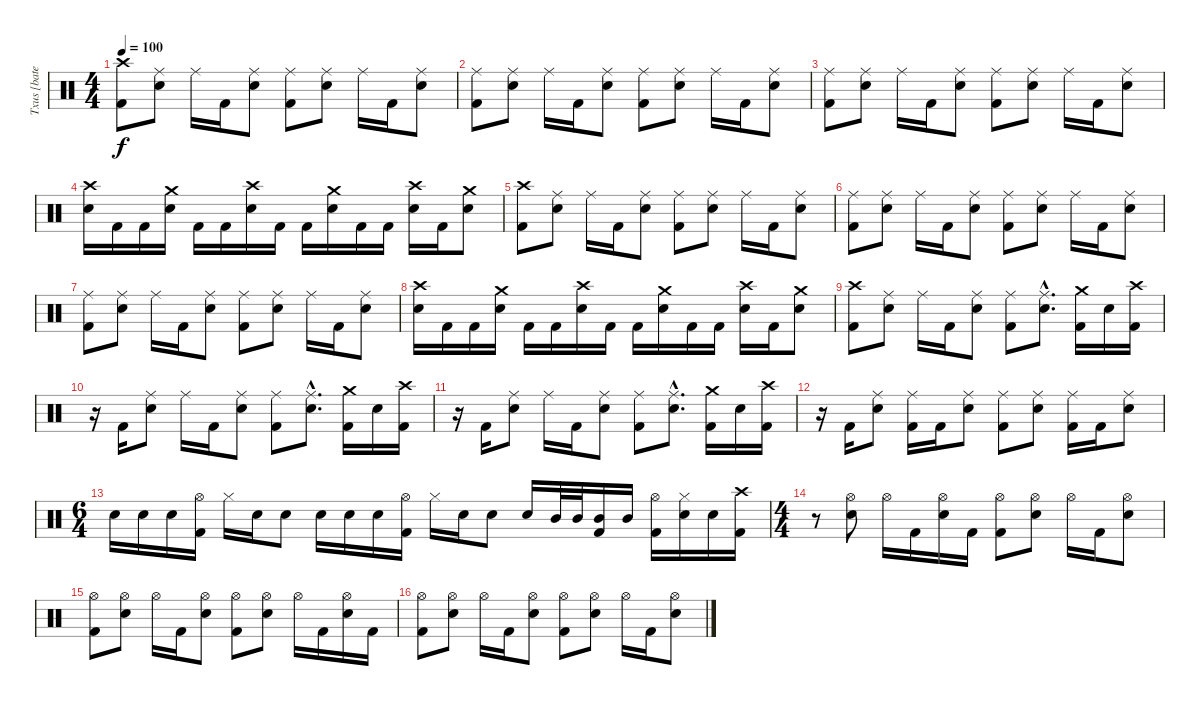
\track ("Txus [bateria]" "Txus [bate") {instrument percussion}
\staff {score}
\articulation defaults
\ts (4 4)
\tempo 100
\clef neutral
\ks c
("Crash high (hit)" "Kick (hit) 2").8{dy f} ("Ride (middle)" "Snare (hit) 2").8 "Ride (middle)".16 "Kick (hit) 2".16 ("Ride (middle)" "Snare (hit) 2").8 ("Ride (middle)" "Kick (hit) 2").8 ("Ride (middle)" "Snare (hit) 2").8 "Ride (middle)".16 "Kick (hit) 2".16 ("Ride (middle)" "Snare (hit) 2").8 |
("Ride (middle)" "Kick (hit) 2").8 ("Ride (middle)" "Snare (hit) 2").8 "Ride (middle)".16 "Kick (hit) 2".16 ("Ride (middle)" "Snare (hit) 2").8 ("Ride (middle)" "Kick (hit) 2").8 ("Ride (middle)" "Snare (hit) 2").8 "Ride (middle)".16 "Kick (hit) 2".16 ("Ride (middle)" "Snare (hit) 2").8 |
("Ride (middle)" "Kick (hit) 2").8 ("Ride (middle)" "Snare (hit) 2").8 "Ride (middle)".16 "Kick (hit) 2".16 ("Ride (middle)" "Snare (hit) 2").8 ("Ride (middle)" "Kick (hit) 2").8 ("Ride (middle)" "Snare (hit) 2").8 "Ride (middle)".16 "Kick (hit) 2".16 ("Ride (middle)" "Snare (hit) 2").8 |
("Crash high (hit)" "Snare (hit) 2").16 "Kick (hit) 2".16 "Kick (hit) 2".16 ("Crash medium (hit)" "Snare (hit) 2").16 "Kick (hit) 2".16 "Kick (hit) 2".16 ("Crash high (hit)" "Snare (hit) 2").16 "Kick (hit) 2".16 "Kick (hit) 2".16 ("Crash medium (hit)" "Snare (hit) 2").16 "Kick (hit) 2".16 "Kick (hit) 2".16 ("Crash high (hit)" "Snare (hit) 2").16 "Kick (hit) 2".16 ("Crash medium (hit)" "Snare (hit) 2").8 |
("Crash high (hit)" "Kick (hit) 2").8 ("Ride (middle)" "Snare (hit) 2").8 "Ride (middle)".16 "Kick (hit) 2".16 ("Ride (middle)" "Snare (hit) 2").8 ("Ride (middle)" "Kick (hit) 2").8 ("Ride (middle)" "Snare (hit) 2").8 "Ride (middle)".16 "Kick (hit) 2".16 ("Ride (middle)" "Snare (hit) 2").8 |
("Ride (middle)" "Kick (hit) 2").8 ("Ride (middle)" "Snare (hit) 2").8 "Ride (middle)".16 "Kick (hit) 2".16 ("Ride (middle)" "Snare (hit) 2").8 ("Ride (middle)" "Kick (hit) 2").8 ("Ride (middle)" "Snare (hit) 2").8 "Ride (middle)".16 "Kick (hit) 2".16 ("Ride (middle)" "Snare (hit) 2").8 |
("Ride (middle)" "Kick (hit) 2").8 ("Ride (middle)" "Snare (hit) 2").8 "Ride (middle)".16 "Kick (hit) 2".16 ("Ride (middle)" "Snare (hit) 2").8 ("Ride (middle)" "Kick (hit) 2").8 ("Ride (middle)" "Snare (hit) 2").8 "Ride (middle)".16 "Kick (hit) 2".16 ("Ride (middle)" "Snare (hit) 2").8 |
("Crash high (hit)" "Snare (hit) 2").16 "Kick (hit) 2".16 "Kick (hit) 2".16 ("Crash medium (hit)" "Snare (hit) 2").16 "Kick (hit) 2".16 "Kick (hit) 2".16 ("Crash high (hit)" "Snare (hit) 2").16 "Kick (hit) 2".16 "Kick (hit) 2".16 ("Crash medium (hit)" "Snare (hit) 2").16 "Kick (hit) 2".16 "Kick (hit) 2".16 ("Crash high (hit)" "Snare (hit) 2").16 "Kick (hit) 2".16 ("Crash medium (hit)" "Snare (hit) 2").8 |
("Crash high (hit)" "Kick (hit) 2").8 ("Ride (middle)" "Snare (hit) 2").8 "Ride (middle)".16 "Kick (hit) 2".16 ("Ride (middle)" "Snare (hit) 2").8 ("Ride (middle)" "Kick (hit) 2").8 ("Ride (middle)"{hac} "Snare (hit) 2"{hac}).8{d} ("Crash medium (hit)" "Kick (hit) 2").16 "Snare (hit) 2".16 ("Crash high (hit)" "Kick (hit) 2").16 |
r.16 "Kick (hit) 2".16 ("Ride (middle)" "Snare (hit) 2").8 "Ride (middle)".16 "Kick (hit) 2".16 ("Ride (middle)" "Snare (hit) 2").8 ("Ride (middle)" "Kick (hit) 2").8 ("Ride (middle)"{hac} "Snare (hit) 2"{hac}).8{d} ("Crash medium (hit)" "Kick (hit) 2").16 "Snare (hit) 2".16 ("Crash high (hit)" "Kick (hit) 2").16 |
r.16 "Kick (hit) 2".16 ("Ride (middle)" "Snare (hit) 2").8 "Ride (middle)".16 "Kick (hit) 2".16 ("Ride (middle)" "Snare (hit) 2").8 ("Ride (middle)" "Kick (hit) 2").8 ("Ride (middle)"{hac} "Snare (hit) 2"{hac}).8{d} ("Crash medium (hit)" "Kick (hit) 2").16 "Snare (hit) 2".16 ("Crash high (hit)" "Kick (hit) 2").16 |
r.16 "Kick (hit) 2".16 ("Ride (middle)" "Snare (hit) 2").8 ("Ride (middle)" "Kick (hit) 2").16 "Kick (hit) 2".16 ("Ride (middle)" "Snare (hit) 2").8 ("Ride (middle)" "Kick (hit) 2").8 ("Ride (middle)" "Snare (hit) 2").8 ("Ride (middle)" "Kick (hit) 2").16 "Kick (hit) 2".16 ("Ride (middle)" "Snare (hit) 2").8 |
\ts (6 4)
"Snare (hit) 2".16 "Snare (hit) 2".16 "Snare (hit) 2".16 ("Hi-Hat (open)" "Kick (hit) 2").16 "Hi-Hat (closed)".16 "Snare (hit) 2".16 "Snare (hit) 2".8 "Snare (hit) 2".16 "Snare (hit) 2".16 "Snare (hit) 2".16 ("Hi-Hat (open)" "Kick (hit) 2").16 "Hi-Hat (closed)".16 "Snare (hit) 2".16 "Snare (hit) 2".8 "Snare (hit) 2".16 "Mid Tom (hit)".32 "Mid Tom (hit)".32 ("Mid Tom (hit)" "Kick (hit) 2").16 "Mid Tom (hit)".16 ("Hi-Hat (open)" "Kick (hit) 2").16 ("Hi-Hat (closed)" "Snare (hit) 2").16 "Snare (hit) 2".16 ("Crash high (hit)" "Kick (hit) 2").16 |
\ts (4 4)
r.8 ("Hi-Hat (open)" "Snare (hit) 2").8 "Hi-Hat (open)".16 "Kick (hit) 2".16 ("Hi-Hat (open)" "Snare (hit) 2").16 "Kick (hit) 2".16 ("Hi-Hat (open)" "Kick (hit) 2").8 ("Hi-Hat (open)" "Snare (hit) 2").8 "Hi-Hat (open)".16 "Kick (hit) 2".16 ("Hi-Hat (open)" "Snare (hit) 2").8 |
("Hi-Hat (open)" "Kick (hit) 2").8 ("Hi-Hat (open)" "Snare (hit) 2").8 "Hi-Hat (open)".16 "Kick (hit) 2".16 ("Hi-Hat (open)" "Snare (hit) 2").8 ("Hi-Hat (open)" "Kick (hit) 2").8 ("Hi-Hat (open)" "Snare (hit) 2").8 "Hi-Hat (open)".16 "Kick (hit) 2".16 ("Hi-Hat (open)" "Snare (hit) 2").16 "Kick (hit) 2".16 |
("Hi-Hat (open)" "Kick (hit) 2").8 ("Hi-Hat (open)" "Snare (hit) 2").8 "Hi-Hat (open)".16 "Kick (hit) 2".16 ("Hi-Hat (open)" "Snare (hit) 2").8 ("Hi-Hat (open)" "Kick (hit) 2").8 ("Hi-Hat (open)" "Snare (hit) 2").8 "Hi-Hat (open)".16 "Kick (hit) 2".16 ("Hi-Hat (open)" "Snare (hit) 2").8
